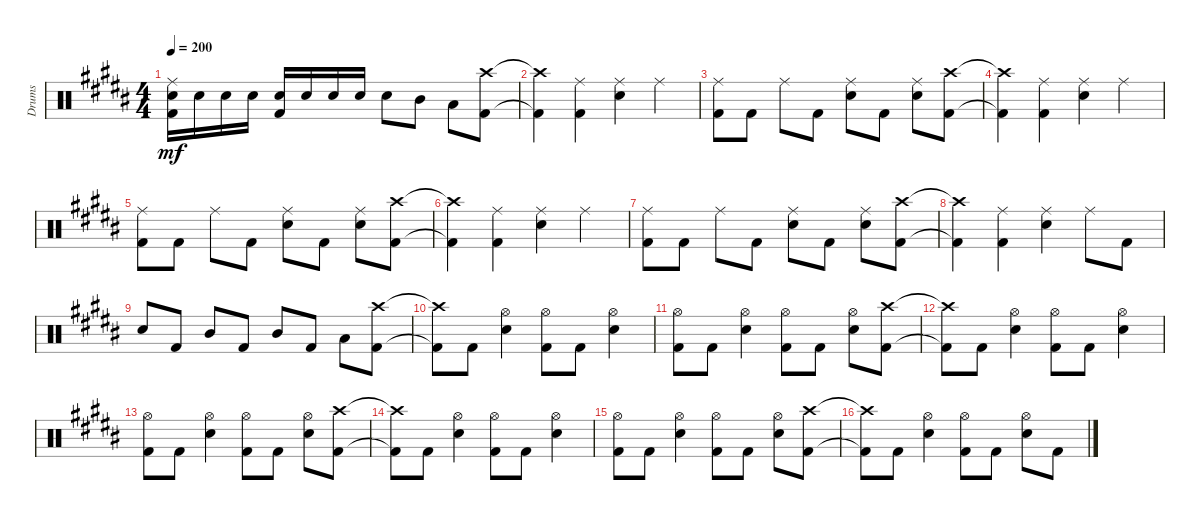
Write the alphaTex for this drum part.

\track ("Drums" "Drums") {instrument percussion}
\staff {score}
\articulation defaults
\ts (4 4)
\tempo 200
\clef neutral
\ks b
("Kick (hit) 2" "Snare (hit) 2" "Ride (middle)").16{dy mf} "Snare (hit) 2".16 "Snare (hit) 2".16 "Snare (hit) 2".16 ("Kick (hit) 2" "Snare (hit) 2").16 "Snare (hit) 2".16 "Snare (hit) 2".16 "Snare (hit) 2".16 "Snare (hit) 2".8 "Mid Tom (hit)".8 "Low Tom (hit)".8 ("Kick (hit) 2" "Crash high (hit)").8 |
("Kick (hit) 2"{t} "Crash high (hit)"{t}).4 ("Kick (hit) 2" "Ride (middle)").4 ("Snare (hit) 2" "Ride (middle)").4 "Ride (middle)".4 |
("Kick (hit) 2" "Ride (middle)").8 "Kick (hit) 2".8 "Ride (middle)".8 "Kick (hit) 2".8 ("Snare (hit) 2" "Ride (middle)").8 "Kick (hit) 2".8 ("Snare (hit) 2" "Ride (middle)").8 ("Kick (hit) 2" "Crash high (hit)").8 |
("Kick (hit) 2"{t} "Crash high (hit)"{t}).4 ("Kick (hit) 2" "Ride (middle)").4 ("Snare (hit) 2" "Ride (middle)").4 "Ride (middle)".4 |
("Kick (hit) 2" "Ride (middle)").8 "Kick (hit) 2".8 "Ride (middle)".8 "Kick (hit) 2".8 ("Snare (hit) 2" "Ride (middle)").8 "Kick (hit) 2".8 ("Snare (hit) 2" "Ride (middle)").8 ("Kick (hit) 2" "Crash high (hit)").8 |
("Kick (hit) 2"{t} "Crash high (hit)"{t}).4 ("Kick (hit) 2" "Ride (middle)").4 ("Snare (hit) 2" "Ride (middle)").4 "Ride (middle)".4 |
("Kick (hit) 2" "Ride (middle)").8 "Kick (hit) 2".8 "Ride (middle)".8 "Kick (hit) 2".8 ("Snare (hit) 2" "Ride (middle)").8 "Kick (hit) 2".8 ("Snare (hit) 2" "Ride (middle)").8 ("Kick (hit) 2" "Crash high (hit)").8 |
("Kick (hit) 2"{t} "Crash high (hit)"{t}).4 ("Kick (hit) 2" "Ride (middle)").4 ("Snare (hit) 2" "Ride (middle)").4 "Ride (middle)".8 "Kick (hit) 2".8 |
"Snare (hit) 2".8 "Kick (hit) 2".8 "Mid Tom (hit)".8 "Kick (hit) 2".8 "Mid Tom (hit)".8 "Kick (hit) 2".8 "Low Tom (hit)".8 ("Kick (hit) 2" "Crash high (hit)").8 |
("Kick (hit) 2"{t} "Crash high (hit)"{t}).8 "Kick (hit) 2".8 ("Snare (hit) 2" "Hi-Hat (open)").4 ("Kick (hit) 2" "Hi-Hat (open)").8 "Kick (hit) 2".8 ("Snare (hit) 2" "Hi-Hat (open)").4 |
("Kick (hit) 2" "Hi-Hat (open)").8 "Kick (hit) 2".8 ("Snare (hit) 2" "Hi-Hat (open)").4 ("Kick (hit) 2" "Hi-Hat (open)").8 "Kick (hit) 2".8 ("Snare (hit) 2" "Hi-Hat (open)").8 ("Kick (hit) 2" "Crash high (hit)").8 |
("Kick (hit) 2"{t} "Crash high (hit)"{t}).8 "Kick (hit) 2".8 ("Snare (hit) 2" "Hi-Hat (open)").4 ("Kick (hit) 2" "Hi-Hat (open)").8 "Kick (hit) 2".8 ("Snare (hit) 2" "Hi-Hat (open)").4 |
("Kick (hit) 2" "Hi-Hat (open)").8 "Kick (hit) 2".8 ("Snare (hit) 2" "Hi-Hat (open)").4 ("Kick (hit) 2" "Hi-Hat (open)").8 "Kick (hit) 2".8 ("Snare (hit) 2" "Hi-Hat (open)").8 ("Kick (hit) 2" "Crash high (hit)").8 |
("Kick (hit) 2"{t} "Crash high (hit)"{t}).8 "Kick (hit) 2".8 ("Snare (hit) 2" "Hi-Hat (open)").4 ("Kick (hit) 2" "Hi-Hat (open)").8 "Kick (hit) 2".8 ("Snare (hit) 2" "Hi-Hat (open)").4 |
("Kick (hit) 2" "Hi-Hat (open)").8 "Kick (hit) 2".8 ("Snare (hit) 2" "Hi-Hat (open)").4 ("Kick (hit) 2" "Hi-Hat (open)").8 "Kick (hit) 2".8 ("Snare (hit) 2" "Hi-Hat (open)").8 ("Kick (hit) 2" "Crash high (hit)").8 |
("Kick (hit) 2"{t} "Crash high (hit)"{t}).8 "Kick (hit) 2".8 ("Snare (hit) 2" "Hi-Hat (open)").4 ("Kick (hit) 2" "Hi-Hat (open)").8 "Kick (hit) 2".8 ("Snare (hit) 2" "Hi-Hat (open)").8 "Kick (hit) 2".8
